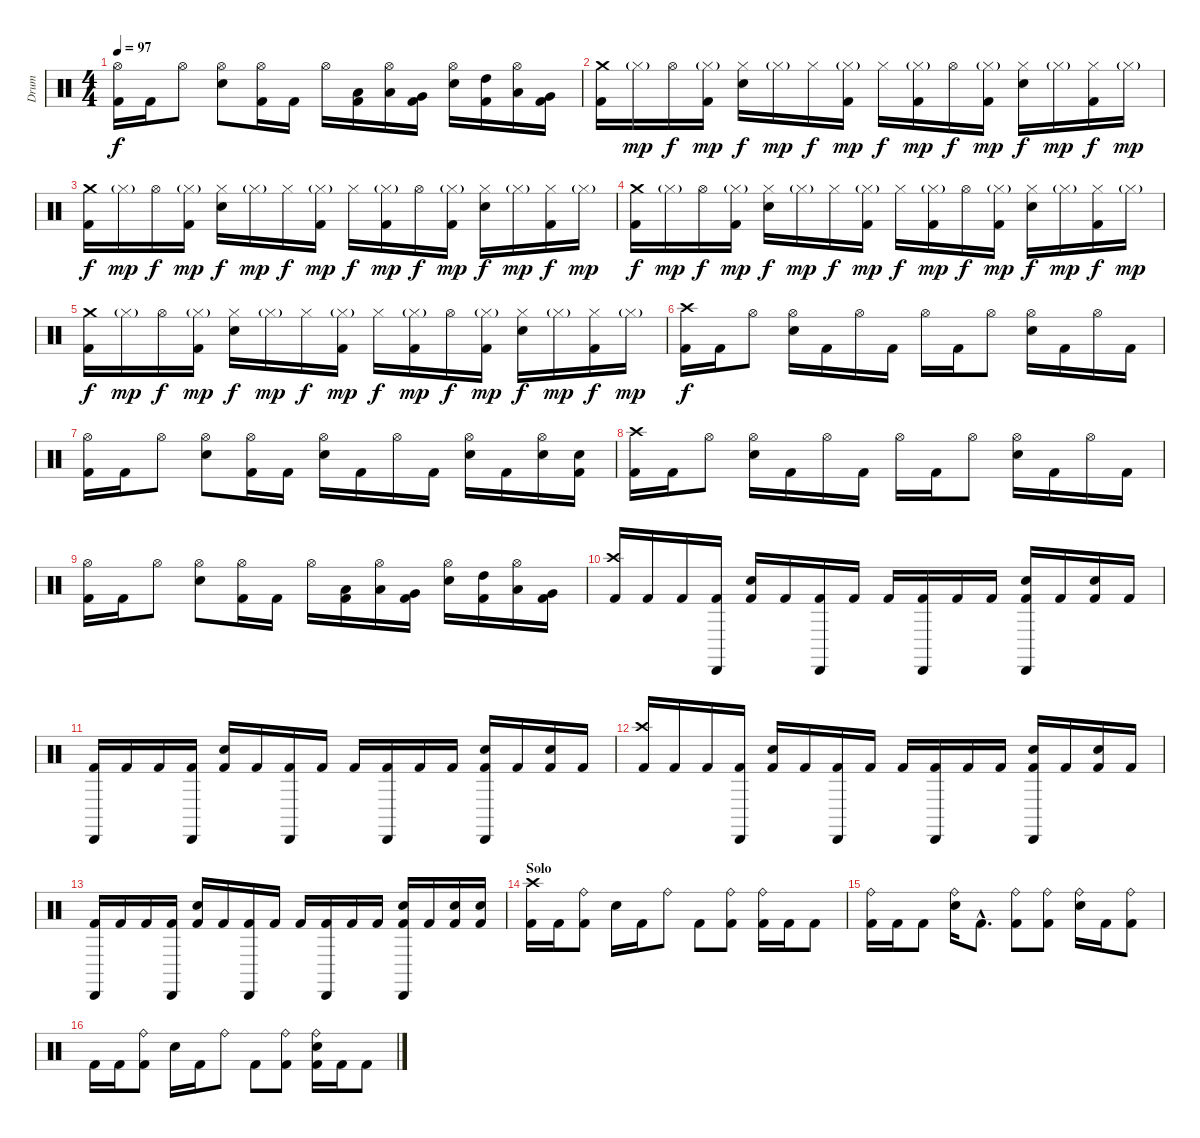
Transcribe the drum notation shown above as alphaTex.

\track ("Drum" "Drum") {instrument percussion}
\staff {score}
\articulation defaults
\ts (4 4)
\tempo 97
\clef neutral
\ks c
("Hi-Hat (open)" "Kick (hit) 2").16{dy f} "Kick (hit) 2".16 "Hi-Hat (open)".8 ("Hi-Hat (open)" "Snare (hit) 2").8 ("Hi-Hat (open)" "Kick (hit) 2").16 "Kick (hit) 2".16 "Hi-Hat (open)".16 ("Low Tom (hit)" "Kick (hit) 2").16 ("Hi-Hat (open)" "Low Tom (hit)").16 ("Very Low Tom (hit)" "Kick (hit) 2").16 ("Hi-Hat (open)" "Snare (hit) 2").16 ("High Tom (hit)" "Kick (hit) 2").16 ("Hi-Hat (open)" "Low Tom (hit)").16 ("Very Low Tom (hit)" "Kick (hit) 2").16 |
("Crash medium (hit)" "Kick (hit) 2").16 "Hi-Hat (closed)"{g}.16{dy mp} "Hi-Hat (open)".16{dy f} ("Hi-Hat (closed)"{g} "Kick (hit) 2").16{dy mp} ("Hi-Hat (closed)" "Snare (hit) 2").16{dy f} "Hi-Hat (closed)"{g}.16{dy mp} "Hi-Hat (closed)".16{dy f} ("Hi-Hat (closed)"{g} "Kick (hit) 2").16{dy mp} "Hi-Hat (closed)".16{dy f} ("Hi-Hat (closed)"{g} "Kick (hit) 2").16{dy mp} "Hi-Hat (open)".16{dy f} ("Hi-Hat (closed)"{g} "Kick (hit) 2").16{dy mp} ("Hi-Hat (closed)" "Snare (hit) 2").16{dy f} "Hi-Hat (closed)"{g}.16{dy mp} ("Hi-Hat (closed)" "Kick (hit) 2").16{dy f} "Hi-Hat (closed)"{g}.16{dy mp} |
("Crash medium (hit)" "Kick (hit) 2").16{dy f} "Hi-Hat (closed)"{g}.16{dy mp} "Hi-Hat (open)".16{dy f} ("Hi-Hat (closed)"{g} "Kick (hit) 2").16{dy mp} ("Hi-Hat (closed)" "Snare (hit) 2").16{dy f} "Hi-Hat (closed)"{g}.16{dy mp} "Hi-Hat (closed)".16{dy f} ("Hi-Hat (closed)"{g} "Kick (hit) 2").16{dy mp} "Hi-Hat (closed)".16{dy f} ("Hi-Hat (closed)"{g} "Kick (hit) 2").16{dy mp} "Hi-Hat (open)".16{dy f} ("Hi-Hat (closed)"{g} "Kick (hit) 2").16{dy mp} ("Hi-Hat (closed)" "Snare (hit) 2").16{dy f} "Hi-Hat (closed)"{g}.16{dy mp} ("Hi-Hat (closed)" "Kick (hit) 2").16{dy f} "Hi-Hat (closed)"{g}.16{dy mp} |
("Crash medium (hit)" "Kick (hit) 2").16{dy f} "Hi-Hat (closed)"{g}.16{dy mp} "Hi-Hat (open)".16{dy f} ("Hi-Hat (closed)"{g} "Kick (hit) 2").16{dy mp} ("Hi-Hat (closed)" "Snare (hit) 2").16{dy f} "Hi-Hat (closed)"{g}.16{dy mp} "Hi-Hat (closed)".16{dy f} ("Hi-Hat (closed)"{g} "Kick (hit) 2").16{dy mp} "Hi-Hat (closed)".16{dy f} ("Hi-Hat (closed)"{g} "Kick (hit) 2").16{dy mp} "Hi-Hat (open)".16{dy f} ("Hi-Hat (closed)"{g} "Kick (hit) 2").16{dy mp} ("Hi-Hat (closed)" "Snare (hit) 2").16{dy f} "Hi-Hat (closed)"{g}.16{dy mp} ("Hi-Hat (closed)" "Kick (hit) 2").16{dy f} "Hi-Hat (closed)"{g}.16{dy mp} |
("Crash medium (hit)" "Kick (hit) 2").16{dy f} "Hi-Hat (closed)"{g}.16{dy mp} "Hi-Hat (open)".16{dy f} ("Hi-Hat (closed)"{g} "Kick (hit) 2").16{dy mp} ("Hi-Hat (closed)" "Snare (hit) 2").16{dy f} "Hi-Hat (closed)"{g}.16{dy mp} "Hi-Hat (closed)".16{dy f} ("Hi-Hat (closed)"{g} "Kick (hit) 2").16{dy mp} "Hi-Hat (closed)".16{dy f} ("Hi-Hat (closed)"{g} "Kick (hit) 2").16{dy mp} "Hi-Hat (open)".16{dy f} ("Hi-Hat (closed)"{g} "Kick (hit) 2").16{dy mp} ("Hi-Hat (closed)" "Snare (hit) 2").16{dy f} "Hi-Hat (closed)"{g}.16{dy mp} ("Hi-Hat (closed)" "Kick (hit) 2").16{dy f} "Hi-Hat (closed)"{g}.16{dy mp} |
("Crash high (hit)" "Kick (hit) 2").16{dy f} "Kick (hit) 2".16 "Hi-Hat (open)".8 ("Hi-Hat (open)" "Snare (hit) 2").16 "Kick (hit) 2".16 "Hi-Hat (open)".16 "Kick (hit) 2".16 "Hi-Hat (open)".16 "Kick (hit) 2".16 "Hi-Hat (open)".8 ("Hi-Hat (open)" "Snare (hit) 2").16 "Kick (hit) 2".16 "Hi-Hat (open)".16 "Kick (hit) 2".16 |
("Hi-Hat (open)" "Kick (hit) 2").16 "Kick (hit) 2".16 "Hi-Hat (open)".8 ("Hi-Hat (open)" "Snare (hit) 2").8 ("Hi-Hat (open)" "Kick (hit) 2").16 "Kick (hit) 2".16 ("Hi-Hat (open)" "Snare (hit) 2").16 "Kick (hit) 2".16 "Hi-Hat (open)".16 "Kick (hit) 2".16 ("Hi-Hat (open)" "Snare (hit) 2").16 "Kick (hit) 2".16 ("Hi-Hat (open)" "Snare (hit) 2").16 ("Snare (hit) 2" "Kick (hit) 2").16 |
("Crash high (hit)" "Kick (hit) 2").16 "Kick (hit) 2".16 "Hi-Hat (open)".8 ("Hi-Hat (open)" "Snare (hit) 2").16 "Kick (hit) 2".16 "Hi-Hat (open)".16 "Kick (hit) 2".16 "Hi-Hat (open)".16 "Kick (hit) 2".16 "Hi-Hat (open)".8 ("Hi-Hat (open)" "Snare (hit) 2").16 "Kick (hit) 2".16 "Hi-Hat (open)".16 "Kick (hit) 2".16 |
("Hi-Hat (open)" "Kick (hit) 2").16 "Kick (hit) 2".16 "Hi-Hat (open)".8 ("Hi-Hat (open)" "Snare (hit) 2").8 ("Hi-Hat (open)" "Kick (hit) 2").16 "Kick (hit) 2".16 "Hi-Hat (open)".16 ("Low Tom (hit)" "Kick (hit) 2").16 ("Hi-Hat (open)" "Low Tom (hit)").16 ("Very Low Tom (hit)" "Kick (hit) 2").16 ("Hi-Hat (open)" "Snare (hit) 2").16 ("High Tom (hit)" "Kick (hit) 2").16 ("Hi-Hat (open)" "Low Tom (hit)").16 ("Very Low Tom (hit)" "Kick (hit) 2").16 |
("Crash high (hit)" "Kick (hit) 2").16 "Kick (hit) 2".16 "Kick (hit) 2".16 ("Cabasa (hit)" "Kick (hit) 2").16 ("Snare (hit) 2" "Kick (hit) 2").16 "Kick (hit) 2".16 ("Cabasa (hit)" "Kick (hit) 2").16 "Kick (hit) 2".16 "Kick (hit) 2".16 ("Cabasa (hit)" "Kick (hit) 2").16 "Kick (hit) 2".16 "Kick (hit) 2".16 ("Cabasa (hit)" "Snare (hit) 2" "Kick (hit) 2").16 "Kick (hit) 2".16 ("Snare (hit) 2" "Kick (hit) 2").16 "Kick (hit) 2".16 |
("Cabasa (hit)" "Kick (hit) 2").16 "Kick (hit) 2".16 "Kick (hit) 2".16 ("Cabasa (hit)" "Kick (hit) 2").16 ("Snare (hit) 2" "Kick (hit) 2").16 "Kick (hit) 2".16 ("Cabasa (hit)" "Kick (hit) 2").16 "Kick (hit) 2".16 "Kick (hit) 2".16 ("Cabasa (hit)" "Kick (hit) 2").16 "Kick (hit) 2".16 "Kick (hit) 2".16 ("Cabasa (hit)" "Snare (hit) 2" "Kick (hit) 2").16 "Kick (hit) 2".16 ("Snare (hit) 2" "Kick (hit) 2").16 "Kick (hit) 2".16 |
("Crash high (hit)" "Kick (hit) 2").16 "Kick (hit) 2".16 "Kick (hit) 2".16 ("Cabasa (hit)" "Kick (hit) 2").16 ("Snare (hit) 2" "Kick (hit) 2").16 "Kick (hit) 2".16 ("Cabasa (hit)" "Kick (hit) 2").16 "Kick (hit) 2".16 "Kick (hit) 2".16 ("Cabasa (hit)" "Kick (hit) 2").16 "Kick (hit) 2".16 "Kick (hit) 2".16 ("Cabasa (hit)" "Snare (hit) 2" "Kick (hit) 2").16 "Kick (hit) 2".16 ("Snare (hit) 2" "Kick (hit) 2").16 "Kick (hit) 2".16 |
("Cabasa (hit)" "Kick (hit) 2").16 "Kick (hit) 2".16 "Kick (hit) 2".16 ("Cabasa (hit)" "Kick (hit) 2").16 ("Snare (hit) 2" "Kick (hit) 2").16 "Kick (hit) 2".16 ("Cabasa (hit)" "Kick (hit) 2").16 "Kick (hit) 2".16 "Kick (hit) 2".16 ("Cabasa (hit)" "Kick (hit) 2").16 "Kick (hit) 2".16 "Kick (hit) 2".16 ("Cabasa (hit)" "Snare (hit) 2" "Kick (hit) 2").16 "Kick (hit) 2".16 ("Snare (hit) 2" "Kick (hit) 2").16 ("Snare (hit) 2" "Kick (hit) 2").16 |
\section ("" "Solo")
("Crash high (hit)" "Kick (hit) 2").16 "Kick (hit) 2".16 ("Ride (bell)" "Kick (hit) 2").8 "Snare (hit) 2".16 "Kick (hit) 2".16 "Ride (bell)".8 "Kick (hit) 2".8 ("Ride (bell)" "Kick (hit) 2").8 ("Ride (bell)" "Kick (hit) 2").16 "Kick (hit) 2".16 "Kick (hit) 2".8 |
("Ride (bell)" "Kick (hit) 2").16 "Kick (hit) 2".16 "Kick (hit) 2".8 ("Ride (bell)" "Snare (hit) 2").16 "Kick (hit) 2"{hac}.8{d} ("Ride (bell)" "Kick (hit) 2").8 ("Ride (bell)" "Kick (hit) 2").8 ("Ride (bell)" "Snare (hit) 2").16 "Kick (hit) 2".16 ("Ride (bell)" "Kick (hit) 2").8 |
"Kick (hit) 2".16 "Kick (hit) 2".16 ("Ride (bell)" "Kick (hit) 2").8 "Snare (hit) 2".16 "Kick (hit) 2".16 "Ride (bell)".8 "Kick (hit) 2".8 ("Ride (bell)" "Kick (hit) 2").8 ("Ride (bell)" "Snare (hit) 2" "Kick (hit) 2").16 "Kick (hit) 2".16 "Kick (hit) 2".8
